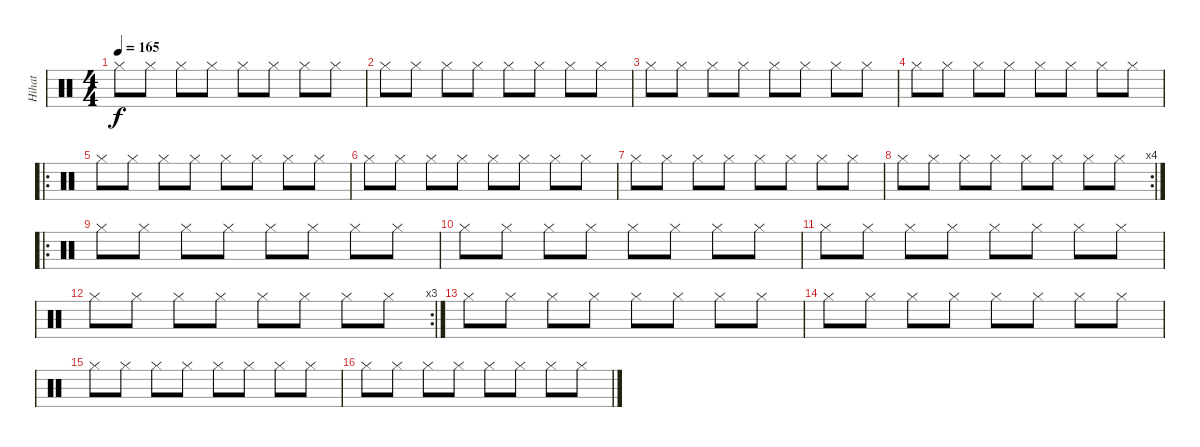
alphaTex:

\track ("Hihat" "Hihat") {instrument percussion}
\staff {score}
\articulation defaults
\ts (4 4)
\tempo 165
\clef neutral
\ks c "Hi-Hat (closed)".8{dy f} "Hi-Hat (closed)".8 "Hi-Hat (closed)".8 "Hi-Hat (closed)".8 "Hi-Hat (closed)".8 "Hi-Hat (closed)".8 "Hi-Hat (closed)".8 "Hi-Hat (closed)".8
|
"Hi-Hat (closed)".8 "Hi-Hat (closed)".8 "Hi-Hat (closed)".8 "Hi-Hat (closed)".8 "Hi-Hat (closed)".8 "Hi-Hat (closed)".8 "Hi-Hat (closed)".8 "Hi-Hat (closed)".8 |
"Hi-Hat (closed)".8 "Hi-Hat (closed)".8 "Hi-Hat (closed)".8 "Hi-Hat (closed)".8 "Hi-Hat (closed)".8 "Hi-Hat (closed)".8 "Hi-Hat (closed)".8 "Hi-Hat (closed)".8 |
"Hi-Hat (closed)".8 "Hi-Hat (closed)".8 "Hi-Hat (closed)".8 "Hi-Hat (closed)".8 "Hi-Hat (closed)".8 "Hi-Hat (closed)".8 "Hi-Hat (closed)".8 "Hi-Hat (closed)".8 |
\ro "Hi-Hat (closed)".8 "Hi-Hat (closed)".8 "Hi-Hat (closed)".8 "Hi-Hat (closed)".8 "Hi-Hat (closed)".8 "Hi-Hat (closed)".8 "Hi-Hat (closed)".8 "Hi-Hat (closed)".8
|
"Hi-Hat (closed)".8 "Hi-Hat (closed)".8 "Hi-Hat (closed)".8 "Hi-Hat (closed)".8 "Hi-Hat (closed)".8 "Hi-Hat (closed)".8 "Hi-Hat (closed)".8 "Hi-Hat (closed)".8 |
"Hi-Hat (closed)".8 "Hi-Hat (closed)".8 "Hi-Hat (closed)".8 "Hi-Hat (closed)".8 "Hi-Hat (closed)".8 "Hi-Hat (closed)".8 "Hi-Hat (closed)".8 "Hi-Hat (closed)".8 |
\rc 4 "Hi-Hat (closed)".8 "Hi-Hat (closed)".8 "Hi-Hat (closed)".8 "Hi-Hat (closed)".8 "Hi-Hat (closed)".8 "Hi-Hat (closed)".8 "Hi-Hat (closed)".8 "Hi-Hat (closed)".8
|
\ro "Hi-Hat (closed)".8 "Hi-Hat (closed)".8 "Hi-Hat (closed)".8 "Hi-Hat (closed)".8 "Hi-Hat (closed)".8 "Hi-Hat (closed)".8 "Hi-Hat (closed)".8 "Hi-Hat (closed)".8
|
"Hi-Hat (closed)".8 "Hi-Hat (closed)".8 "Hi-Hat (closed)".8 "Hi-Hat (closed)".8 "Hi-Hat (closed)".8 "Hi-Hat (closed)".8 "Hi-Hat (closed)".8 "Hi-Hat (closed)".8 |
"Hi-Hat (closed)".8 "Hi-Hat (closed)".8 "Hi-Hat (closed)".8 "Hi-Hat (closed)".8 "Hi-Hat (closed)".8 "Hi-Hat (closed)".8 "Hi-Hat (closed)".8 "Hi-Hat (closed)".8 |
\rc 3 "Hi-Hat (closed)".8 "Hi-Hat (closed)".8 "Hi-Hat (closed)".8 "Hi-Hat (closed)".8 "Hi-Hat (closed)".8 "Hi-Hat (closed)".8 "Hi-Hat (closed)".8 "Hi-Hat (closed)".8
|
"Hi-Hat (closed)".8 "Hi-Hat (closed)".8 "Hi-Hat (closed)".8 "Hi-Hat (closed)".8 "Hi-Hat (closed)".8 "Hi-Hat (closed)".8 "Hi-Hat (closed)".8 "Hi-Hat (closed)".8 |
"Hi-Hat (closed)".8 "Hi-Hat (closed)".8 "Hi-Hat (closed)".8 "Hi-Hat (closed)".8 "Hi-Hat (closed)".8 "Hi-Hat (closed)".8 "Hi-Hat (closed)".8 "Hi-Hat (closed)".8 |
"Hi-Hat (closed)".8 "Hi-Hat (closed)".8 "Hi-Hat (closed)".8 "Hi-Hat (closed)".8 "Hi-Hat (closed)".8 "Hi-Hat (closed)".8 "Hi-Hat (closed)".8 "Hi-Hat (closed)".8 |
"Hi-Hat (closed)".8 "Hi-Hat (closed)".8 "Hi-Hat (closed)".8 "Hi-Hat (closed)".8 "Hi-Hat (closed)".8 "Hi-Hat (closed)".8 "Hi-Hat (closed)".8 "Hi-Hat (closed)".8
